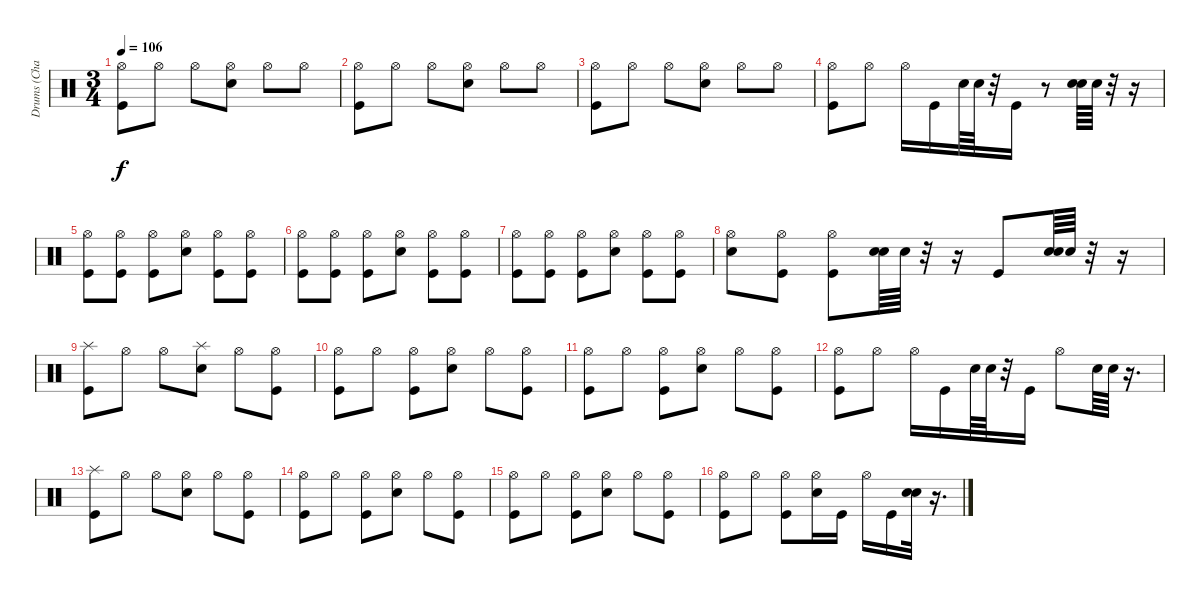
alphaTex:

\track ("Drums (Chad?)" "Drums (Cha") {instrument percussion}
\staff {score}
\articulation defaults
\ts (3 4)
\tempo 106
\clef neutral
\ks c
("Hi-Hat (open)" "Kick (hit)").8{dy f} "Hi-Hat (open)".8 "Hi-Hat (open)".8 ("Hi-Hat (open)" "Snare (hit) 2").8 "Hi-Hat (open)".8 "Hi-Hat (open)".8 |
("Hi-Hat (open)" "Kick (hit)").8 "Hi-Hat (open)".8 "Hi-Hat (open)".8 ("Hi-Hat (open)" "Snare (hit) 2").8 "Hi-Hat (open)".8 "Hi-Hat (open)".8 |
("Hi-Hat (open)" "Kick (hit)").8 "Hi-Hat (open)".8 "Hi-Hat (open)".8 ("Hi-Hat (open)" "Snare (hit) 2").8 "Hi-Hat (open)".8 "Hi-Hat (open)".8 |
("Hi-Hat (open)" "Kick (hit)").8 "Hi-Hat (open)".8 "Hi-Hat (open)".16 "Kick (hit)".16 "Snare (hit) 2".64 "Snare (hit) 2".64 r.32 "Kick (hit)".16 r.8 ("Snare (hit) 2" "Snare (hit) 2").64 "Snare (hit) 2".64 r.32 r.16 |
("Hi-Hat (open)" "Kick (hit)").8 ("Hi-Hat (open)" "Kick (hit)").8 ("Hi-Hat (open)" "Kick (hit)").8 ("Hi-Hat (open)" "Snare (hit) 2").8 ("Hi-Hat (open)" "Kick (hit)").8 ("Hi-Hat (open)" "Kick (hit)").8 |
("Hi-Hat (open)" "Kick (hit)").8 ("Hi-Hat (open)" "Kick (hit)").8 ("Hi-Hat (open)" "Kick (hit)").8 ("Hi-Hat (open)" "Snare (hit) 2").8 ("Hi-Hat (open)" "Kick (hit)").8 ("Hi-Hat (open)" "Kick (hit)").8 |
("Hi-Hat (open)" "Kick (hit)").8 ("Hi-Hat (open)" "Kick (hit)").8 ("Hi-Hat (open)" "Kick (hit)").8 ("Hi-Hat (open)" "Snare (hit) 2").8 ("Hi-Hat (open)" "Kick (hit)").8 ("Hi-Hat (open)" "Kick (hit)").8 |
("Hi-Hat (open)" "Snare (hit) 2").8 ("Hi-Hat (open)" "Kick (hit)").8 ("Hi-Hat (open)" "Kick (hit)").8 ("Snare (hit) 2" "Snare (hit) 2").64 "Snare (hit) 2".64 r.32 r.16 "Kick (hit)".8 ("Snare (hit) 2" "Snare (hit) 2").64 "Snare (hit) 2".64 r.32 r.16 |
("Splash (hit)" "Kick (hit)").8 "Hi-Hat (open)".8 "Hi-Hat (open)".8 ("Splash (hit)" "Snare (hit) 2").8 "Hi-Hat (open)".8 ("Hi-Hat (open)" "Kick (hit)").8 |
("Hi-Hat (open)" "Kick (hit)").8 "Hi-Hat (open)".8 ("Hi-Hat (open)" "Kick (hit)").8 ("Hi-Hat (open)" "Snare (hit) 2").8 "Hi-Hat (open)".8 ("Hi-Hat (open)" "Kick (hit)").8 |
("Hi-Hat (open)" "Kick (hit)").8 "Hi-Hat (open)".8 ("Hi-Hat (open)" "Kick (hit)").8 ("Hi-Hat (open)" "Snare (hit) 2").8 "Hi-Hat (open)".8 ("Hi-Hat (open)" "Kick (hit)").8 |
("Hi-Hat (open)" "Kick (hit)").8 "Hi-Hat (open)".8 "Hi-Hat (open)".16 "Kick (hit)".16 "Snare (hit) 2".64 "Snare (hit) 2".64 r.32 "Kick (hit)".16 "Hi-Hat (open)".8 "Snare (hit) 2".64 "Snare (hit) 2".64 r.16{d} |
("Splash (hit)" "Kick (hit)").8 "Hi-Hat (open)".8 "Hi-Hat (open)".8 ("Hi-Hat (open)" "Snare (hit) 2").8 "Hi-Hat (open)".8 ("Hi-Hat (open)" "Kick (hit)").8 |
("Hi-Hat (open)" "Kick (hit)").8 "Hi-Hat (open)".8 ("Hi-Hat (open)" "Kick (hit)").8 ("Hi-Hat (open)" "Snare (hit) 2").8 "Hi-Hat (open)".8 ("Hi-Hat (open)" "Kick (hit)").8 |
("Hi-Hat (open)" "Kick (hit)").8 "Hi-Hat (open)".8 ("Hi-Hat (open)" "Kick (hit)").8 ("Hi-Hat (open)" "Snare (hit) 2").8 "Hi-Hat (open)".8 ("Hi-Hat (open)" "Kick (hit)").8 |
("Hi-Hat (open)" "Kick (hit)").8 "Hi-Hat (open)".8 ("Hi-Hat (open)" "Kick (hit)").8 ("Hi-Hat (open)" "Snare (hit) 2").16 "Kick (hit)".16 "Hi-Hat (open)".16 "Kick (hit)".16 ("Snare (hit) 2" "Snare (hit) 2").32 r.16{d}
